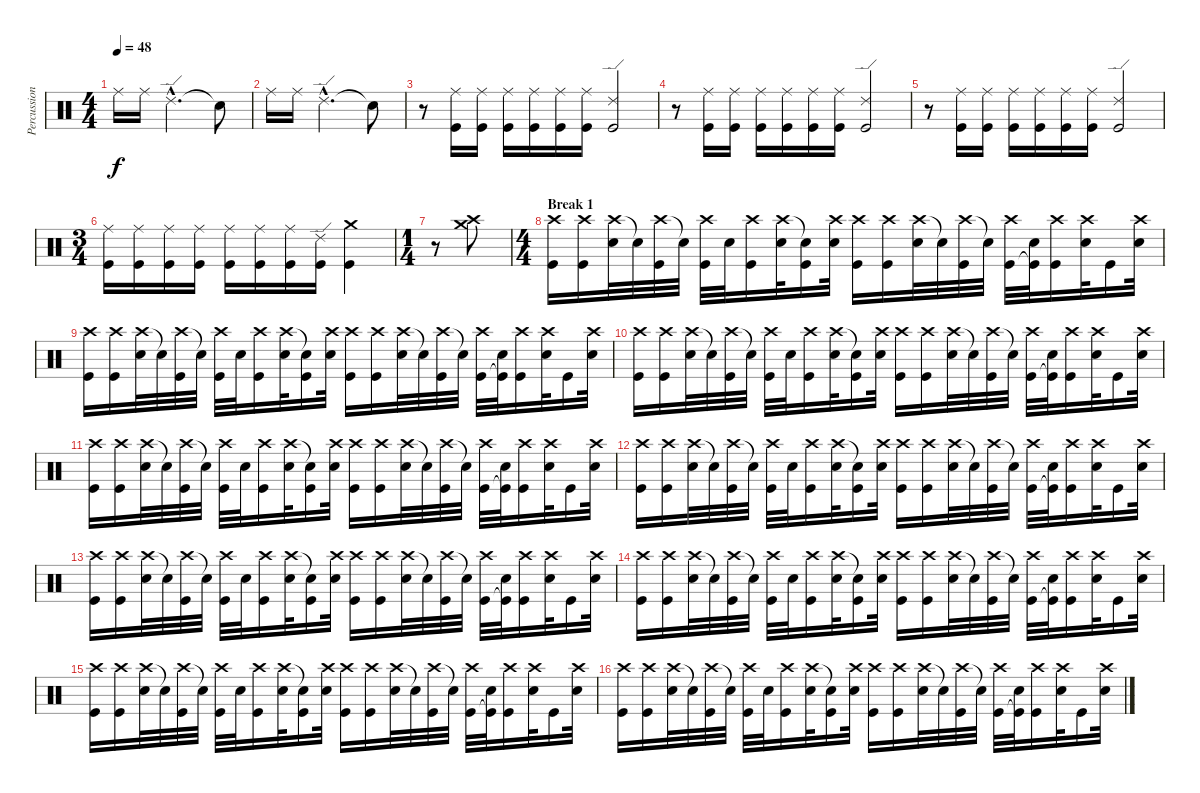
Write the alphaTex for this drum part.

\track ("Percussions" "Percussion") {instrument percussion}
\staff {score}
\articulation defaults
\ts (4 4)
\tempo 48
\clef neutral
\ks c "Ride (middle)".16{dy f} "Ride (middle)".16 "Ride (edge) 2"{hac}.2{d} "Snare (hit)"{t}.8
|
"Ride (middle)".16 "Ride (middle)".16 "Ride (edge) 2"{hac}.2{d} "Snare (hit)"{t}.8 |
r.8 ("Ride (middle)" "Kick (hit)").16 ("Ride (middle)" "Kick (hit)").16 ("Ride (middle)" "Kick (hit)").16 ("Ride (middle)" "Kick (hit)").16 ("Ride (middle)" "Kick (hit)").16 ("Ride (middle)" "Kick (hit)").16 ("Ride (edge) 2" "Kick (hit)").2 |
r.8 ("Ride (middle)" "Kick (hit)").16 ("Ride (middle)" "Kick (hit)").16 ("Ride (middle)" "Kick (hit)").16 ("Ride (middle)" "Kick (hit)").16 ("Ride (middle)" "Kick (hit)").16 ("Ride (middle)" "Kick (hit)").16 ("Ride (edge) 2" "Kick (hit)").2 |
r.8 ("Ride (middle)" "Kick (hit)").16 ("Ride (middle)" "Kick (hit)").16 ("Ride (middle)" "Kick (hit)").16 ("Ride (middle)" "Kick (hit)").16 ("Ride (middle)" "Kick (hit)").16 ("Ride (middle)" "Kick (hit)").16 ("Ride (edge) 2" "Kick (hit)").2 |
\ts (3 4)
("Ride (middle)" "Kick (hit)").16 ("Ride (middle)" "Kick (hit)").16 ("Ride (middle)" "Kick (hit)").16 ("Ride (middle)" "Kick (hit)").16 ("Ride (middle)" "Kick (hit)").16 ("Ride (middle)" "Kick (hit)").16 ("Ride (middle)" "Kick (hit)").16 ("Ride (edge) 2" "Kick (hit)").16 ("Crash medium (hit)" "Kick (hit)").4 |
\ts (1 4)
r.8 ("Crash high (hit)" "Crash medium (hit)").8 |
\ts (4 4)
\section ("" "Break 1")
("Crash high (hit)" "Kick (hit)").16{volume 16} ("Crash high (hit)" "Kick (hit)").16 ("Crash high (hit)" "Electric Snare (hit)").32 "Snare (hit)"{t}.32 ("Crash high (hit)" "Kick (hit)").32 "Snare (hit)"{t}.32 ("Crash high (hit)" "Kick (hit)").32 "Electric Snare (hit)".32 ("Crash high (hit)" "Kick (hit)").16 ("Crash high (hit)" "Electric Snare (hit)").32 ("Snare (hit)"{t} "Kick (hit)").16 ("Crash high (hit)" "Electric Snare (hit)").32 ("Crash high (hit)" "Kick (hit)").16 ("Crash high (hit)" "Kick (hit)").16 ("Crash high (hit)" "Electric Snare (hit)").32 "Snare (hit)"{t}.32 ("Crash high (hit)" "Kick (hit)").32 "Snare (hit)"{t}.32 ("Crash high (hit)" "Kick (hit)").32 ("Electric Snare (hit)" "Kick (hit)"{t}).32 ("Crash high (hit)" "Kick (hit)").16 ("Crash high (hit)" "Electric Snare (hit)").32 "Kick (hit)".16 ("Crash high (hit)" "Electric Snare (hit)").32 |
("Crash high (hit)" "Kick (hit)").16 ("Crash high (hit)" "Kick (hit)").16 ("Crash high (hit)" "Electric Snare (hit)").32 "Snare (hit)"{t}.32 ("Crash high (hit)" "Kick (hit)").32 "Snare (hit)"{t}.32 ("Crash high (hit)" "Kick (hit)").32 "Electric Snare (hit)".32 ("Crash high (hit)" "Kick (hit)").16 ("Crash high (hit)" "Electric Snare (hit)").32 ("Snare (hit)"{t} "Kick (hit)").16 ("Crash high (hit)" "Electric Snare (hit)").32 ("Crash high (hit)" "Kick (hit)").16 ("Crash high (hit)" "Kick (hit)").16 ("Crash high (hit)" "Electric Snare (hit)").32 "Snare (hit)"{t}.32 ("Crash high (hit)" "Kick (hit)").32 "Snare (hit)"{t}.32 ("Crash high (hit)" "Kick (hit)").32 ("Electric Snare (hit)" "Kick (hit)"{t}).32 ("Crash high (hit)" "Kick (hit)").16 ("Crash high (hit)" "Electric Snare (hit)").32 "Kick (hit)".16 ("Crash high (hit)" "Electric Snare (hit)").32 |
("Crash high (hit)" "Kick (hit)").16 ("Crash high (hit)" "Kick (hit)").16 ("Crash high (hit)" "Electric Snare (hit)").32 "Snare (hit)"{t}.32 ("Crash high (hit)" "Kick (hit)").32 "Snare (hit)"{t}.32 ("Crash high (hit)" "Kick (hit)").32 "Electric Snare (hit)".32 ("Crash high (hit)" "Kick (hit)").16 ("Crash high (hit)" "Electric Snare (hit)").32 ("Snare (hit)"{t} "Kick (hit)").16 ("Crash high (hit)" "Electric Snare (hit)").32 ("Crash high (hit)" "Kick (hit)").16 ("Crash high (hit)" "Kick (hit)").16 ("Crash high (hit)" "Electric Snare (hit)").32 "Snare (hit)"{t}.32 ("Crash high (hit)" "Kick (hit)").32 "Snare (hit)"{t}.32 ("Crash high (hit)" "Kick (hit)").32 ("Electric Snare (hit)" "Kick (hit)"{t}).32 ("Crash high (hit)" "Kick (hit)").16 ("Crash high (hit)" "Electric Snare (hit)").32 "Kick (hit)".16 ("Crash high (hit)" "Electric Snare (hit)").32 |
("Crash high (hit)" "Kick (hit)").16 ("Crash high (hit)" "Kick (hit)").16 ("Crash high (hit)" "Electric Snare (hit)").32 "Snare (hit)"{t}.32 ("Crash high (hit)" "Kick (hit)").32 "Snare (hit)"{t}.32 ("Crash high (hit)" "Kick (hit)").32 "Electric Snare (hit)".32 ("Crash high (hit)" "Kick (hit)").16 ("Crash high (hit)" "Electric Snare (hit)").32 ("Snare (hit)"{t} "Kick (hit)").16 ("Crash high (hit)" "Electric Snare (hit)").32 ("Crash high (hit)" "Kick (hit)").16 ("Crash high (hit)" "Kick (hit)").16 ("Crash high (hit)" "Electric Snare (hit)").32 "Snare (hit)"{t}.32 ("Crash high (hit)" "Kick (hit)").32 "Snare (hit)"{t}.32 ("Crash high (hit)" "Kick (hit)").32 ("Electric Snare (hit)" "Kick (hit)"{t}).32 ("Crash high (hit)" "Kick (hit)").16 ("Crash high (hit)" "Electric Snare (hit)").32 "Kick (hit)".16 ("Crash high (hit)" "Electric Snare (hit)").32 |
("Crash high (hit)" "Kick (hit)").16 ("Crash high (hit)" "Kick (hit)").16 ("Crash high (hit)" "Electric Snare (hit)").32 "Snare (hit)"{t}.32 ("Crash high (hit)" "Kick (hit)").32 "Snare (hit)"{t}.32 ("Crash high (hit)" "Kick (hit)").32 "Electric Snare (hit)".32 ("Crash high (hit)" "Kick (hit)").16 ("Crash high (hit)" "Electric Snare (hit)").32 ("Snare (hit)"{t} "Kick (hit)").16 ("Crash high (hit)" "Electric Snare (hit)").32 ("Crash high (hit)" "Kick (hit)").16 ("Crash high (hit)" "Kick (hit)").16 ("Crash high (hit)" "Electric Snare (hit)").32 "Snare (hit)"{t}.32 ("Crash high (hit)" "Kick (hit)").32 "Snare (hit)"{t}.32 ("Crash high (hit)" "Kick (hit)").32 ("Electric Snare (hit)" "Kick (hit)"{t}).32 ("Crash high (hit)" "Kick (hit)").16 ("Crash high (hit)" "Electric Snare (hit)").32 "Kick (hit)".16 ("Crash high (hit)" "Electric Snare (hit)").32 |
("Crash high (hit)" "Kick (hit)").16 ("Crash high (hit)" "Kick (hit)").16 ("Crash high (hit)" "Electric Snare (hit)").32 "Snare (hit)"{t}.32 ("Crash high (hit)" "Kick (hit)").32 "Snare (hit)"{t}.32 ("Crash high (hit)" "Kick (hit)").32 "Electric Snare (hit)".32 ("Crash high (hit)" "Kick (hit)").16 ("Crash high (hit)" "Electric Snare (hit)").32 ("Snare (hit)"{t} "Kick (hit)").16 ("Crash high (hit)" "Electric Snare (hit)").32 ("Crash high (hit)" "Kick (hit)").16 ("Crash high (hit)" "Kick (hit)").16 ("Crash high (hit)" "Electric Snare (hit)").32 "Snare (hit)"{t}.32 ("Crash high (hit)" "Kick (hit)").32 "Snare (hit)"{t}.32 ("Crash high (hit)" "Kick (hit)").32 ("Electric Snare (hit)" "Kick (hit)"{t}).32 ("Crash high (hit)" "Kick (hit)").16 ("Crash high (hit)" "Electric Snare (hit)").32 "Kick (hit)".16 ("Crash high (hit)" "Electric Snare (hit)").32 |
("Crash high (hit)" "Kick (hit)").16 ("Crash high (hit)" "Kick (hit)").16 ("Crash high (hit)" "Electric Snare (hit)").32 "Snare (hit)"{t}.32 ("Crash high (hit)" "Kick (hit)").32 "Snare (hit)"{t}.32 ("Crash high (hit)" "Kick (hit)").32 "Electric Snare (hit)".32 ("Crash high (hit)" "Kick (hit)").16 ("Crash high (hit)" "Electric Snare (hit)").32 ("Snare (hit)"{t} "Kick (hit)").16 ("Crash high (hit)" "Electric Snare (hit)").32 ("Crash high (hit)" "Kick (hit)").16 ("Crash high (hit)" "Kick (hit)").16 ("Crash high (hit)" "Electric Snare (hit)").32 "Snare (hit)"{t}.32 ("Crash high (hit)" "Kick (hit)").32 "Snare (hit)"{t}.32 ("Crash high (hit)" "Kick (hit)").32 ("Electric Snare (hit)" "Kick (hit)"{t}).32 ("Crash high (hit)" "Kick (hit)").16 ("Crash high (hit)" "Electric Snare (hit)").32 "Kick (hit)".16 ("Crash high (hit)" "Electric Snare (hit)").32 |
("Crash high (hit)" "Kick (hit)").16 ("Crash high (hit)" "Kick (hit)").16 ("Crash high (hit)" "Electric Snare (hit)").32 "Snare (hit)"{t}.32 ("Crash high (hit)" "Kick (hit)").32 "Snare (hit)"{t}.32 ("Crash high (hit)" "Kick (hit)").32 "Electric Snare (hit)".32 ("Crash high (hit)" "Kick (hit)").16 ("Crash high (hit)" "Electric Snare (hit)").32 ("Snare (hit)"{t} "Kick (hit)").16 ("Crash high (hit)" "Electric Snare (hit)").32 ("Crash high (hit)" "Kick (hit)").16 ("Crash high (hit)" "Kick (hit)").16 ("Crash high (hit)" "Electric Snare (hit)").32 "Snare (hit)"{t}.32 ("Crash high (hit)" "Kick (hit)").32 "Snare (hit)"{t}.32 ("Crash high (hit)" "Kick (hit)").32 ("Electric Snare (hit)" "Kick (hit)"{t}).32 ("Crash high (hit)" "Kick (hit)").16 ("Crash high (hit)" "Electric Snare (hit)").32 "Kick (hit)".16 ("Crash high (hit)" "Electric Snare (hit)").32 |
("Crash high (hit)" "Kick (hit)").16 ("Crash high (hit)" "Kick (hit)").16 ("Crash high (hit)" "Electric Snare (hit)").32 "Snare (hit)"{t}.32 ("Crash high (hit)" "Kick (hit)").32 "Snare (hit)"{t}.32 ("Crash high (hit)" "Kick (hit)").32 "Electric Snare (hit)".32 ("Crash high (hit)" "Kick (hit)").16 ("Crash high (hit)" "Electric Snare (hit)").32 ("Snare (hit)"{t} "Kick (hit)").16 ("Crash high (hit)" "Electric Snare (hit)").32 ("Crash high (hit)" "Kick (hit)").16 ("Crash high (hit)" "Kick (hit)").16 ("Crash high (hit)" "Electric Snare (hit)").32 "Snare (hit)"{t}.32 ("Crash high (hit)" "Kick (hit)").32 "Snare (hit)"{t}.32 ("Crash high (hit)" "Kick (hit)").32 ("Electric Snare (hit)" "Kick (hit)"{t}).32 ("Crash high (hit)" "Kick (hit)").16 ("Crash high (hit)" "Electric Snare (hit)").32 "Kick (hit)".16 ("Crash high (hit)" "Electric Snare (hit)").32
